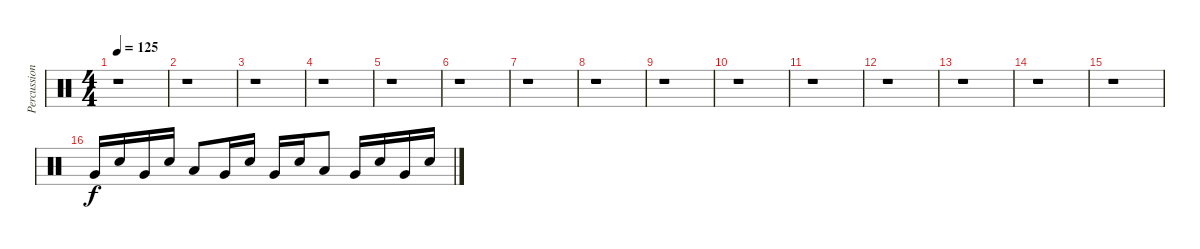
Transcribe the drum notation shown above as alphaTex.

\track ("Percussion" "Percussion") {instrument percussion}
\staff {score}
\articulation defaults
\ts (4 4)
\tempo 125
\clef neutral
\ks c
r.1{dy f} |
r.1 |
r.1 |
r.1 |
r.1 |
r.1 |
r.1 |
r.1 |
r.1 |
r.1 |
r.1 |
r.1 |
r.1 |
r.1 |
r.1 |
"Very Low Tom (hit)".16 "Electric Snare (hit)".16 "Very Low Tom (hit)".16 "Electric Snare (hit)".16 "Low Floor Tom (hit)".8 "Very Low Tom (hit)".16 "Electric Snare (hit)".16 "Very Low Tom (hit)".16 "Electric Snare (hit)".16 "Low Floor Tom (hit)".8 "Very Low Tom (hit)".16 "Electric Snare (hit)".16 "Very Low Tom (hit)".16 "Electric Snare (hit)".16
